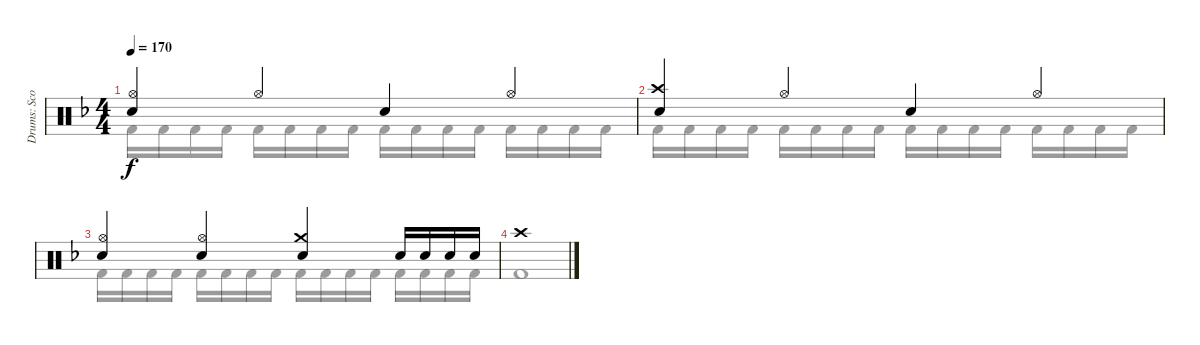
\track ("Drums: Scott" "Drums: Sco") {instrument percussion}
\staff {score}
\articulation defaults
\voice
\ts (4 4)
\tempo 170
\clef neutral
\ks f
("Hi-Hat (open)" "Snare (hit) 2").4{dy f} "Hi-Hat (open)".4 "Snare (hit) 2".4 "Hi-Hat (open)".4 |
("Crash high (hit)" "Snare (hit) 2").4 "Hi-Hat (open)".4 "Snare (hit) 2".4 "Hi-Hat (open)".4 |
("Hi-Hat (open)" "Snare (hit) 2").4 ("Hi-Hat (open)" "Snare (hit) 2").4 ("Crash medium (hit)" "Snare (hit) 2").4 "Snare (hit) 2".16 "Snare (hit) 2".16 "Snare (hit) 2".16 "Snare (hit) 2".16 |
"Crash high (hit)".1
\voice
\clef neutral
\ottava regular
\simile none
\ks f "Kick (hit) 2".16{dy f} "Kick (hit) 2".16{beam merge} "Kick (hit) 2".16 "Kick (hit) 2".16 "Kick (hit) 2".16 "Kick (hit) 2".16{beam merge} "Kick (hit) 2".16 "Kick (hit) 2".16 "Kick (hit) 2".16 "Kick (hit) 2".16{beam merge} "Kick (hit) 2".16 "Kick (hit) 2".16 "Kick (hit) 2".16 "Kick (hit) 2".16{beam merge} "Kick (hit) 2".16 "Kick (hit) 2".16
|
"Kick (hit) 2".16 "Kick (hit) 2".16{beam merge} "Kick (hit) 2".16 "Kick (hit) 2".16 "Kick (hit) 2".16 "Kick (hit) 2".16{beam merge} "Kick (hit) 2".16 "Kick (hit) 2".16 "Kick (hit) 2".16 "Kick (hit) 2".16{beam merge} "Kick (hit) 2".16 "Kick (hit) 2".16 "Kick (hit) 2".16 "Kick (hit) 2".16{beam merge} "Kick (hit) 2".16 "Kick (hit) 2".16 |
"Kick (hit) 2".16 "Kick (hit) 2".16{beam merge} "Kick (hit) 2".16 "Kick (hit) 2".16 "Kick (hit) 2".16 "Kick (hit) 2".16{beam merge} "Kick (hit) 2".16 "Kick (hit) 2".16 "Kick (hit) 2".16 "Kick (hit) 2".16{beam merge} "Kick (hit) 2".16 "Kick (hit) 2".16 "Kick (hit) 2".16 "Kick (hit) 2".16{beam merge} "Kick (hit) 2".16 "Kick (hit) 2".16 |
"Kick (hit) 2".1
